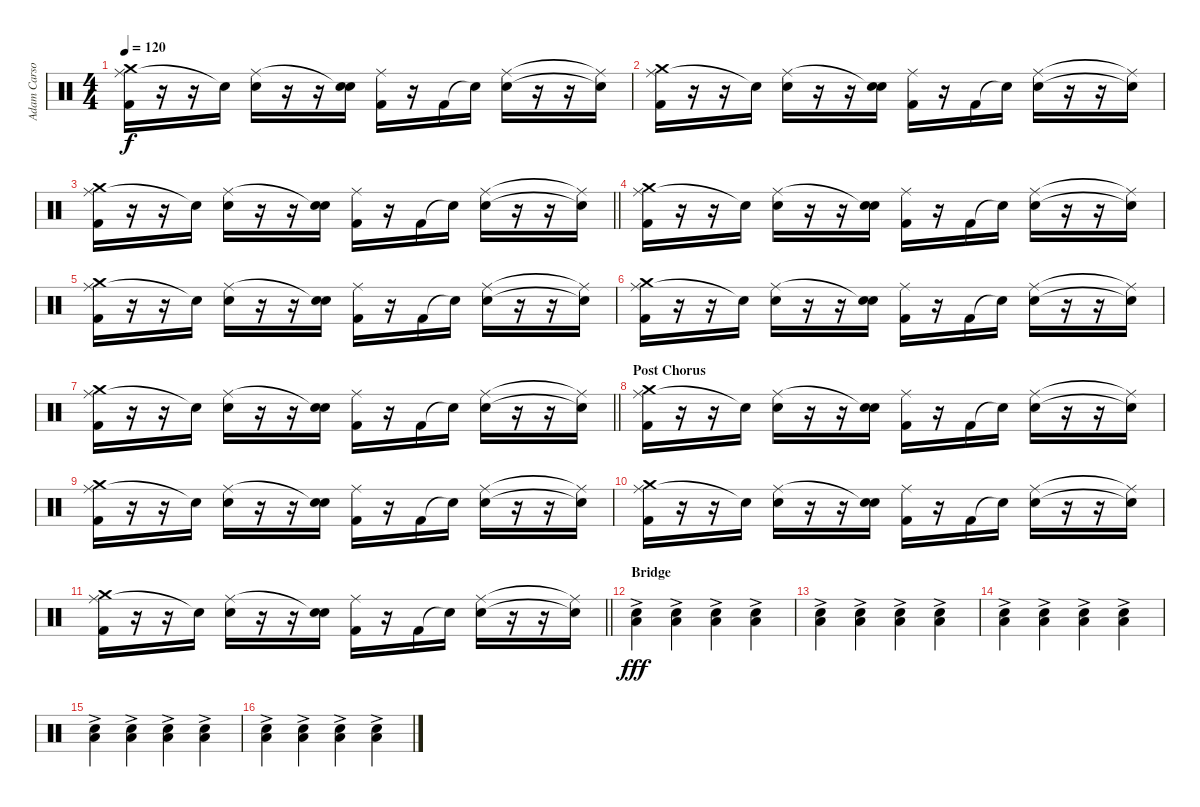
\track ("Adam Carson (Percussion)" "Adam Carso") {instrument percussion}
\staff {score}
\articulation defaults
\ts (4 4)
\tempo 120
\clef neutral
\ks c
("Ride (middle)" "Crash medium (hit)" "Kick (hit) 2").16{dy f} r.16 r.16 "Snare (hit)"{t}.16 ("Ride (middle)" "Snare (hit) 2").16 r.16 r.16 ("Snare (hit)"{t} "Snare (hit) 2").16 ("Ride (middle)" "Kick (hit) 2").16 r.16 "Kick (hit) 2".16 "Snare (hit)"{t}.16 ("Ride (middle)" "Snare (hit) 2").16 r.16 r.16 ("Ride (middle)"{t} "Snare (hit)"{t}).16 |
("Ride (middle)" "Crash medium (hit)" "Kick (hit) 2").16 r.16 r.16 "Snare (hit)"{t}.16 ("Ride (middle)" "Snare (hit) 2").16 r.16 r.16 ("Snare (hit)"{t} "Snare (hit) 2").16 ("Ride (middle)" "Kick (hit) 2").16 r.16 "Kick (hit) 2".16 "Snare (hit)"{t}.16 ("Ride (middle)" "Snare (hit) 2").16 r.16 r.16 ("Ride (middle)"{t} "Snare (hit)"{t}).16 |
\barLineRight lightlight
("Ride (middle)" "Crash medium (hit)" "Kick (hit) 2").16 r.16 r.16 "Snare (hit)"{t}.16 ("Ride (middle)" "Snare (hit) 2").16 r.16 r.16 ("Snare (hit)"{t} "Snare (hit) 2").16 ("Ride (middle)" "Kick (hit) 2").16 r.16 "Kick (hit) 2".16 "Snare (hit)"{t}.16 ("Ride (middle)" "Snare (hit) 2").16 r.16 r.16 ("Ride (middle)"{t} "Snare (hit)"{t}).16 |
("Ride (middle)" "Crash medium (hit)" "Kick (hit) 2").16 r.16 r.16 "Snare (hit)"{t}.16 ("Ride (middle)" "Snare (hit) 2").16 r.16 r.16 ("Snare (hit)"{t} "Snare (hit) 2").16 ("Ride (middle)" "Kick (hit) 2").16 r.16 "Kick (hit) 2".16 "Snare (hit)"{t}.16 ("Ride (middle)" "Snare (hit) 2").16 r.16 r.16 ("Ride (middle)"{t} "Snare (hit)"{t}).16 |
("Ride (middle)" "Crash medium (hit)" "Kick (hit) 2").16 r.16 r.16 "Snare (hit)"{t}.16 ("Ride (middle)" "Snare (hit) 2").16 r.16 r.16 ("Snare (hit)"{t} "Snare (hit) 2").16 ("Ride (middle)" "Kick (hit) 2").16 r.16 "Kick (hit) 2".16 "Snare (hit)"{t}.16 ("Ride (middle)" "Snare (hit) 2").16 r.16 r.16 ("Ride (middle)"{t} "Snare (hit)"{t}).16 |
("Ride (middle)" "Crash medium (hit)" "Kick (hit) 2").16 r.16 r.16 "Snare (hit)"{t}.16 ("Ride (middle)" "Snare (hit) 2").16 r.16 r.16 ("Snare (hit)"{t} "Snare (hit) 2").16 ("Ride (middle)" "Kick (hit) 2").16 r.16 "Kick (hit) 2".16 "Snare (hit)"{t}.16 ("Ride (middle)" "Snare (hit) 2").16 r.16 r.16 ("Ride (middle)"{t} "Snare (hit)"{t}).16 |
\barLineRight lightlight
("Ride (middle)" "Crash medium (hit)" "Kick (hit) 2").16 r.16 r.16 "Snare (hit)"{t}.16 ("Ride (middle)" "Snare (hit) 2").16 r.16 r.16 ("Snare (hit)"{t} "Snare (hit) 2").16 ("Ride (middle)" "Kick (hit) 2").16 r.16 "Kick (hit) 2".16 "Snare (hit)"{t}.16 ("Ride (middle)" "Snare (hit) 2").16 r.16 r.16 ("Ride (middle)"{t} "Snare (hit)"{t}).16 |
\section ("" "Post Chorus")
("Ride (middle)" "Crash medium (hit)" "Kick (hit) 2").16 r.16 r.16 "Snare (hit)"{t}.16 ("Ride (middle)" "Snare (hit) 2").16 r.16 r.16 ("Snare (hit)"{t} "Snare (hit) 2").16 ("Ride (middle)" "Kick (hit) 2").16 r.16 "Kick (hit) 2".16 "Snare (hit)"{t}.16 ("Ride (middle)" "Snare (hit) 2").16 r.16 r.16 ("Ride (middle)"{t} "Snare (hit)"{t}).16 |
("Ride (middle)" "Crash medium (hit)" "Kick (hit) 2").16 r.16 r.16 "Snare (hit)"{t}.16 ("Ride (middle)" "Snare (hit) 2").16 r.16 r.16 ("Snare (hit)"{t} "Snare (hit) 2").16 ("Ride (middle)" "Kick (hit) 2").16 r.16 "Kick (hit) 2".16 "Snare (hit)"{t}.16 ("Ride (middle)" "Snare (hit) 2").16 r.16 r.16 ("Ride (middle)"{t} "Snare (hit)"{t}).16 |
("Ride (middle)" "Crash medium (hit)" "Kick (hit) 2").16 r.16 r.16 "Snare (hit)"{t}.16 ("Ride (middle)" "Snare (hit) 2").16 r.16 r.16 ("Snare (hit)"{t} "Snare (hit) 2").16 ("Ride (middle)" "Kick (hit) 2").16 r.16 "Kick (hit) 2".16 "Snare (hit)"{t}.16 ("Ride (middle)" "Snare (hit) 2").16 r.16 r.16 ("Ride (middle)"{t} "Snare (hit)"{t}).16 |
\barLineRight lightlight
("Ride (middle)" "Crash medium (hit)" "Kick (hit) 2").16 r.16 r.16 "Snare (hit)"{t}.16 ("Ride (middle)" "Snare (hit) 2").16 r.16 r.16 ("Snare (hit)"{t} "Snare (hit) 2").16 ("Ride (middle)" "Kick (hit) 2").16 r.16 "Kick (hit) 2".16 "Snare (hit)"{t}.16 ("Ride (middle)" "Snare (hit) 2").16 r.16 r.16 ("Ride (middle)"{t} "Snare (hit)"{t}).16 |
\section ("" "Bridge")
("Low Floor Tom (hit)" "Hand Clap (hit)"{ac}).4{dy fff} ("Low Floor Tom (hit)" "Hand Clap (hit)"{ac}).4 ("Low Floor Tom (hit)" "Hand Clap (hit)"{ac}).4 ("Low Floor Tom (hit)" "Hand Clap (hit)"{ac}).4 |
("Low Floor Tom (hit)" "Hand Clap (hit)"{ac}).4 ("Low Floor Tom (hit)" "Hand Clap (hit)"{ac}).4 ("Low Floor Tom (hit)" "Hand Clap (hit)"{ac}).4 ("Low Floor Tom (hit)" "Hand Clap (hit)"{ac}).4 |
("Low Floor Tom (hit)" "Hand Clap (hit)"{ac}).4 ("Low Floor Tom (hit)" "Hand Clap (hit)"{ac}).4 ("Low Floor Tom (hit)" "Hand Clap (hit)"{ac}).4 ("Low Floor Tom (hit)" "Hand Clap (hit)"{ac}).4 |
("Low Floor Tom (hit)" "Hand Clap (hit)"{ac}).4 ("Low Floor Tom (hit)" "Hand Clap (hit)"{ac}).4 ("Low Floor Tom (hit)" "Hand Clap (hit)"{ac}).4 ("Low Floor Tom (hit)" "Hand Clap (hit)"{ac}).4 |
("Low Floor Tom (hit)" "Hand Clap (hit)"{ac}).4 ("Low Floor Tom (hit)" "Hand Clap (hit)"{ac}).4 ("Low Floor Tom (hit)" "Hand Clap (hit)"{ac}).4 ("Low Floor Tom (hit)" "Hand Clap (hit)"{ac}).4
